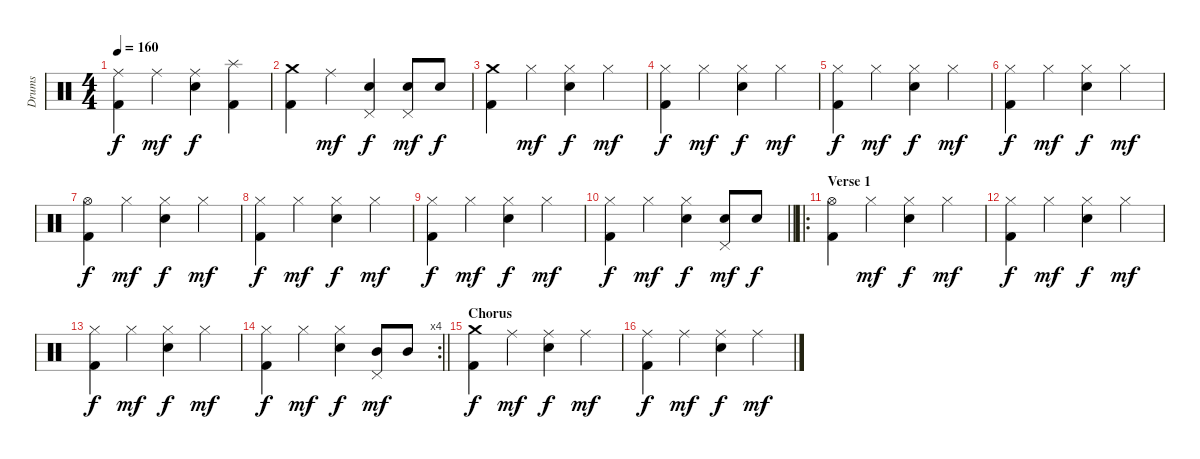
\track ("Drums" "Drums") {instrument percussion}
\staff {score}
\articulation defaults
\ts (4 4)
\tempo 160
\clef neutral
\ks c
("Ride (middle)" "Kick (hit) 2").4{dy f} "Ride (middle)".4{dy mf} ("Ride (middle)" "Snare (hit) 2").4{dy f} ("Splash (hit)" "Kick (hit) 2").4 |
("Crash medium (hit)" "Kick (hit) 2").4 "Ride (middle)".4{dy mf} ("Pedal Hi-Hat (hit)" "Snare (hit) 2").4{dy f} ("Pedal Hi-Hat (hit)" "Snare (hit) 2").8{dy mf} "Snare (hit) 2".8{dy f} |
("Crash medium (hit)" "Kick (hit) 2").4 "Hi-Hat (closed)".4{dy mf} ("Hi-Hat (closed)" "Snare (hit) 2").4{dy f} "Hi-Hat (closed)".4{dy mf} |
("Hi-Hat (closed)" "Kick (hit) 2").4{dy f} "Hi-Hat (closed)".4{dy mf} ("Hi-Hat (closed)" "Snare (hit) 2").4{dy f} "Hi-Hat (closed)".4{dy mf} |
("Hi-Hat (closed)" "Kick (hit) 2").4{dy f} "Hi-Hat (closed)".4{dy mf} ("Hi-Hat (closed)" "Snare (hit) 2").4{dy f} "Hi-Hat (closed)".4{dy mf} |
("Hi-Hat (closed)" "Kick (hit) 2").4{dy f} "Hi-Hat (closed)".4{dy mf} ("Hi-Hat (closed)" "Snare (hit) 2").4{dy f} "Hi-Hat (closed)".4{dy mf} |
("Hi-Hat (open)" "Kick (hit) 2").4{dy f} "Hi-Hat (closed)".4{dy mf} ("Hi-Hat (closed)" "Snare (hit) 2").4{dy f} "Hi-Hat (closed)".4{dy mf} |
("Hi-Hat (closed)" "Kick (hit) 2").4{dy f} "Hi-Hat (closed)".4{dy mf} ("Hi-Hat (closed)" "Snare (hit) 2").4{dy f} "Hi-Hat (closed)".4{dy mf} |
("Hi-Hat (closed)" "Kick (hit) 2").4{dy f} "Hi-Hat (closed)".4{dy mf} ("Hi-Hat (closed)" "Snare (hit) 2").4{dy f} "Hi-Hat (closed)".4{dy mf} |
\barLineRight lightlight
("Hi-Hat (closed)" "Kick (hit) 2").4{dy f} "Hi-Hat (closed)".4{dy mf} ("Hi-Hat (closed)" "Snare (hit) 2").4{dy f} ("Pedal Hi-Hat (hit)" "Snare (hit) 2").8{dy mf} "Snare (hit) 2".8{dy f} |
\ro
\section ("" "Verse 1")
("Hi-Hat (open)" "Kick (hit) 2").4 "Hi-Hat (closed)".4{dy mf} ("Hi-Hat (closed)" "Snare (hit) 2").4{dy f} "Hi-Hat (closed)".4{dy mf} |
("Hi-Hat (closed)" "Kick (hit) 2").4{dy f} "Hi-Hat (closed)".4{dy mf} ("Hi-Hat (closed)" "Snare (hit) 2").4{dy f} "Hi-Hat (closed)".4{dy mf} |
("Hi-Hat (closed)" "Kick (hit) 2").4{dy f} "Hi-Hat (closed)".4{dy mf} ("Hi-Hat (closed)" "Snare (hit) 2").4{dy f} "Hi-Hat (closed)".4{dy mf} |
\rc 4
\barLineRight lightlight
("Hi-Hat (closed)" "Kick (hit) 2").4{dy f} "Hi-Hat (closed)".4{dy mf} ("Hi-Hat (closed)" "Snare (hit) 2").4{dy f} ("Pedal Hi-Hat (hit)" "Mid Tom (hit)").8{dy mf} "Mid Tom (hit)".8 |
\section ("" "Chorus")
("Crash medium (hit)" "Kick (hit) 2").4{dy f} "Ride (middle)".4{dy mf} ("Ride (middle)" "Snare (hit) 2").4{dy f} "Ride (middle)".4{dy mf} |
("Ride (middle)" "Kick (hit) 2").4{dy f} "Ride (middle)".4{dy mf} ("Ride (middle)" "Snare (hit) 2").4{dy f} "Ride (middle)".4{dy mf}
